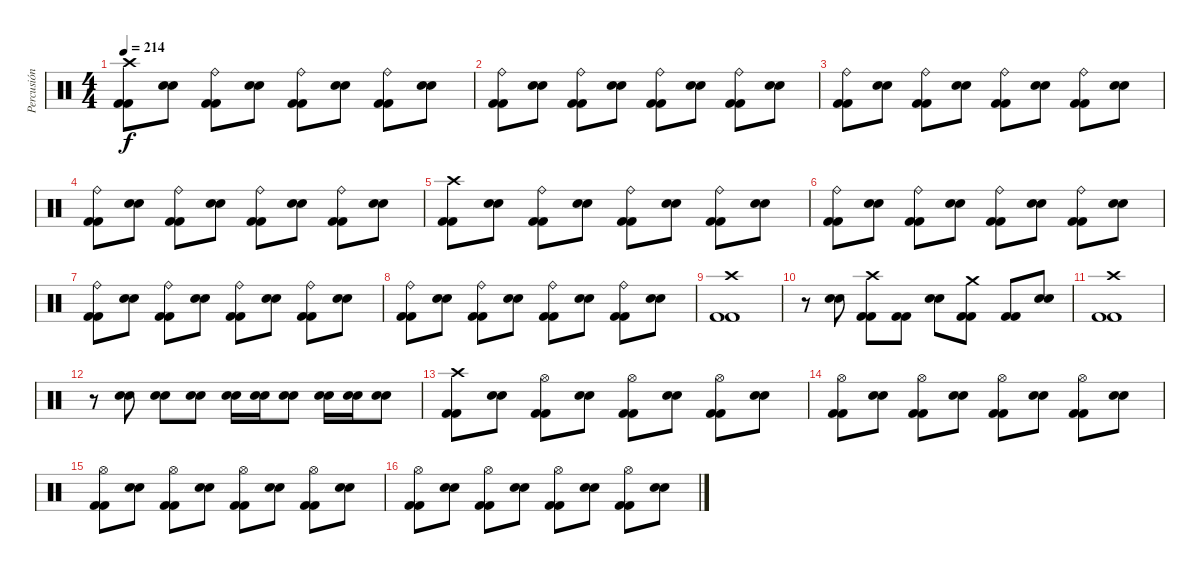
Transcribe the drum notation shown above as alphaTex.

\track ("Percusión" "Percusión") {instrument percussion}
\staff {score}
\articulation defaults
\ts (4 4)
\tempo 214
\clef neutral
\ks c
("Kick (hit) 2" "Kick (hit) 2" "Crash high (hit)").8{dy f} ("Electric Snare (hit)" "Electric Snare (hit)").8 ("Kick (hit) 2" "Kick (hit) 2" "Ride (bell)").8 ("Electric Snare (hit)" "Electric Snare (hit)").8 ("Kick (hit) 2" "Kick (hit) 2" "Ride (bell)").8 ("Electric Snare (hit)" "Electric Snare (hit)").8 ("Kick (hit) 2" "Kick (hit) 2" "Ride (bell)").8 ("Electric Snare (hit)" "Electric Snare (hit)").8 |
("Kick (hit) 2" "Kick (hit) 2" "Ride (bell)").8 ("Electric Snare (hit)" "Electric Snare (hit)").8 ("Kick (hit) 2" "Kick (hit) 2" "Ride (bell)").8 ("Electric Snare (hit)" "Electric Snare (hit)").8 ("Kick (hit) 2" "Kick (hit) 2" "Ride (bell)").8 ("Electric Snare (hit)" "Electric Snare (hit)").8 ("Kick (hit) 2" "Kick (hit) 2" "Ride (bell)").8 ("Electric Snare (hit)" "Electric Snare (hit)").8 |
("Kick (hit) 2" "Kick (hit) 2" "Ride (bell)").8 ("Electric Snare (hit)" "Electric Snare (hit)").8 ("Kick (hit) 2" "Kick (hit) 2" "Ride (bell)").8 ("Electric Snare (hit)" "Electric Snare (hit)").8 ("Kick (hit) 2" "Kick (hit) 2" "Ride (bell)").8 ("Electric Snare (hit)" "Electric Snare (hit)").8 ("Kick (hit) 2" "Kick (hit) 2" "Ride (bell)").8 ("Electric Snare (hit)" "Electric Snare (hit)").8 |
("Kick (hit) 2" "Kick (hit) 2" "Ride (bell)").8 ("Electric Snare (hit)" "Electric Snare (hit)").8 ("Kick (hit) 2" "Kick (hit) 2" "Ride (bell)").8 ("Electric Snare (hit)" "Electric Snare (hit)").8 ("Kick (hit) 2" "Kick (hit) 2" "Ride (bell)").8 ("Electric Snare (hit)" "Electric Snare (hit)").8 ("Kick (hit) 2" "Kick (hit) 2" "Ride (bell)").8 ("Electric Snare (hit)" "Electric Snare (hit)").8 |
("Kick (hit) 2" "Kick (hit) 2" "Crash high (hit)").8 ("Electric Snare (hit)" "Electric Snare (hit)").8 ("Kick (hit) 2" "Kick (hit) 2" "Ride (bell)").8 ("Electric Snare (hit)" "Electric Snare (hit)").8 ("Kick (hit) 2" "Kick (hit) 2" "Ride (bell)").8 ("Electric Snare (hit)" "Electric Snare (hit)").8 ("Kick (hit) 2" "Kick (hit) 2" "Ride (bell)").8 ("Electric Snare (hit)" "Electric Snare (hit)").8 |
("Kick (hit) 2" "Kick (hit) 2" "Ride (bell)").8 ("Electric Snare (hit)" "Electric Snare (hit)").8 ("Kick (hit) 2" "Kick (hit) 2" "Ride (bell)").8 ("Electric Snare (hit)" "Electric Snare (hit)").8 ("Kick (hit) 2" "Kick (hit) 2" "Ride (bell)").8 ("Electric Snare (hit)" "Electric Snare (hit)").8 ("Kick (hit) 2" "Kick (hit) 2" "Ride (bell)").8 ("Electric Snare (hit)" "Electric Snare (hit)").8 |
("Kick (hit) 2" "Kick (hit) 2" "Ride (bell)").8 ("Electric Snare (hit)" "Electric Snare (hit)").8 ("Kick (hit) 2" "Kick (hit) 2" "Ride (bell)").8 ("Electric Snare (hit)" "Electric Snare (hit)").8 ("Kick (hit) 2" "Kick (hit) 2" "Ride (bell)").8 ("Electric Snare (hit)" "Electric Snare (hit)").8 ("Kick (hit) 2" "Kick (hit) 2" "Ride (bell)").8 ("Electric Snare (hit)" "Electric Snare (hit)").8 |
("Kick (hit) 2" "Kick (hit) 2" "Ride (bell)").8 ("Electric Snare (hit)" "Electric Snare (hit)").8 ("Kick (hit) 2" "Kick (hit) 2" "Ride (bell)").8 ("Electric Snare (hit)" "Electric Snare (hit)").8 ("Kick (hit) 2" "Kick (hit) 2" "Ride (bell)").8 ("Electric Snare (hit)" "Electric Snare (hit)").8 ("Kick (hit) 2" "Kick (hit) 2" "Ride (bell)").8 ("Electric Snare (hit)" "Electric Snare (hit)").8 |
("Kick (hit) 2" "Kick (hit) 2" "Crash high (hit)").1 |
r.8 ("Electric Snare (hit)" "Electric Snare (hit)").8 ("Kick (hit) 2" "Kick (hit) 2" "Crash high (hit)").8 ("Kick (hit) 2" "Kick (hit) 2").8 ("Electric Snare (hit)" "Electric Snare (hit)").8 ("Kick (hit) 2" "Kick (hit) 2" "Crash medium (hit)").8 ("Kick (hit) 2" "Kick (hit) 2").8 ("Electric Snare (hit)" "Electric Snare (hit)").8 |
("Kick (hit) 2" "Kick (hit) 2" "Crash high (hit)").1 |
r.8 ("Electric Snare (hit)" "Electric Snare (hit)").8 ("Electric Snare (hit)" "Electric Snare (hit)").8 ("Electric Snare (hit)" "Electric Snare (hit)").8 ("Electric Snare (hit)" "Electric Snare (hit)").16 ("Electric Snare (hit)" "Electric Snare (hit)").16 ("Electric Snare (hit)" "Electric Snare (hit)").8 ("Electric Snare (hit)" "Electric Snare (hit)").16 ("Electric Snare (hit)" "Electric Snare (hit)").16 ("Electric Snare (hit)" "Electric Snare (hit)").8 |
("Kick (hit) 2" "Kick (hit) 2" "Crash high (hit)").8 ("Electric Snare (hit)" "Electric Snare (hit)").8 ("Kick (hit) 2" "Kick (hit) 2" "Hi-Hat (open)").8 ("Electric Snare (hit)" "Electric Snare (hit)").8 ("Kick (hit) 2" "Kick (hit) 2" "Hi-Hat (open)").8 ("Electric Snare (hit)" "Electric Snare (hit)").8 ("Kick (hit) 2" "Kick (hit) 2" "Hi-Hat (open)").8 ("Electric Snare (hit)" "Electric Snare (hit)").8 |
("Kick (hit) 2" "Kick (hit) 2" "Hi-Hat (open)").8 ("Electric Snare (hit)" "Electric Snare (hit)").8 ("Kick (hit) 2" "Kick (hit) 2" "Hi-Hat (open)").8 ("Electric Snare (hit)" "Electric Snare (hit)").8 ("Kick (hit) 2" "Kick (hit) 2" "Hi-Hat (open)").8 ("Electric Snare (hit)" "Electric Snare (hit)").8 ("Kick (hit) 2" "Kick (hit) 2" "Hi-Hat (open)").8 ("Electric Snare (hit)" "Electric Snare (hit)").8 |
("Kick (hit) 2" "Kick (hit) 2" "Hi-Hat (open)").8 ("Electric Snare (hit)" "Electric Snare (hit)").8 ("Kick (hit) 2" "Kick (hit) 2" "Hi-Hat (open)").8 ("Electric Snare (hit)" "Electric Snare (hit)").8 ("Kick (hit) 2" "Kick (hit) 2" "Hi-Hat (open)").8 ("Electric Snare (hit)" "Electric Snare (hit)").8 ("Kick (hit) 2" "Kick (hit) 2" "Hi-Hat (open)").8 ("Electric Snare (hit)" "Electric Snare (hit)").8 |
("Kick (hit) 2" "Kick (hit) 2" "Hi-Hat (open)").8 ("Electric Snare (hit)" "Electric Snare (hit)").8 ("Kick (hit) 2" "Kick (hit) 2" "Hi-Hat (open)").8 ("Electric Snare (hit)" "Electric Snare (hit)").8 ("Kick (hit) 2" "Kick (hit) 2" "Hi-Hat (open)").8 ("Electric Snare (hit)" "Electric Snare (hit)").8 ("Kick (hit) 2" "Kick (hit) 2" "Hi-Hat (open)").8 ("Electric Snare (hit)" "Electric Snare (hit)").8
